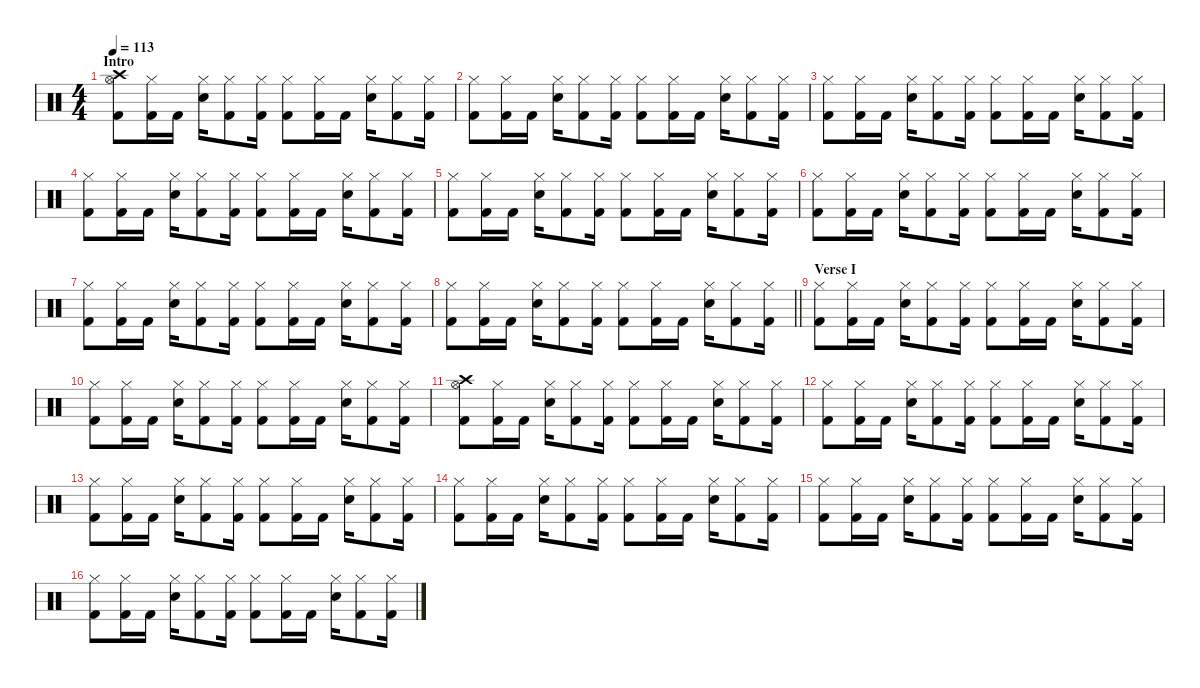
\defaultSystemsLayout 4
\hideDynamics
\bracketExtendMode nobrackets
\singleTrackTrackNamePolicy hidden
\multiTrackTrackNamePolicy hidden
\firstSystemTrackNameMode fullname
\firstSystemTrackNameOrientation horizontal
\otherSystemsTrackNameOrientation horizontal
\track ("Drums" "drm.") {instrument percussion}
\staff {score}
\articulation defaults
\ts (4 4)
\beaming (8 2 2 2 2)
\section ("" "Intro")
\tempo 113
\clef neutral
\ks c
("Crash high (hit)" "Hi-Hat (open)" "Kick (hit) 2").8{dy f beam Down} ("Hi-Hat (closed)" "Kick (hit) 2").16{beam Down} "Kick (hit) 2".16{beam Down} ("Hi-Hat (closed)" "Snare (hit) 2").16{beam Down} ("Hi-Hat (closed)" "Kick (hit) 2").8{beam Down} ("Hi-Hat (closed)" "Kick (hit) 2").16{beam Down} ("Hi-Hat (closed)" "Kick (hit) 2").8{beam Down} ("Hi-Hat (closed)" "Kick (hit) 2").16{beam Down} "Kick (hit) 2".16{beam Down} ("Hi-Hat (closed)" "Snare (hit) 2").16{beam Down} ("Hi-Hat (closed)" "Kick (hit) 2").8{beam Down} ("Hi-Hat (closed)" "Kick (hit) 2").16{beam Down} |
("Hi-Hat (closed)" "Kick (hit) 2").8{beam Down} ("Hi-Hat (closed)" "Kick (hit) 2").16{beam Down} "Kick (hit) 2".16{beam Down} ("Hi-Hat (closed)" "Snare (hit) 2").16{beam Down} ("Hi-Hat (closed)" "Kick (hit) 2").8{beam Down} ("Hi-Hat (closed)" "Kick (hit) 2").16{beam Down} ("Hi-Hat (closed)" "Kick (hit) 2").8{beam Down} ("Hi-Hat (closed)" "Kick (hit) 2").16{beam Down} "Kick (hit) 2".16{beam Down} ("Hi-Hat (closed)" "Snare (hit) 2").16{beam Down} ("Hi-Hat (closed)" "Kick (hit) 2").8{beam Down} ("Hi-Hat (closed)" "Kick (hit) 2").16{beam Down} |
("Hi-Hat (closed)" "Kick (hit) 2").8{beam Down} ("Hi-Hat (closed)" "Kick (hit) 2").16{beam Down} "Kick (hit) 2".16{beam Down} ("Hi-Hat (closed)" "Snare (hit) 2").16{beam Down} ("Hi-Hat (closed)" "Kick (hit) 2").8{beam Down} ("Hi-Hat (closed)" "Kick (hit) 2").16{beam Down} ("Hi-Hat (closed)" "Kick (hit) 2").8{beam Down} ("Hi-Hat (closed)" "Kick (hit) 2").16{beam Down} "Kick (hit) 2".16{beam Down} ("Hi-Hat (closed)" "Snare (hit) 2").16{beam Down} ("Hi-Hat (closed)" "Kick (hit) 2").8{beam Down} ("Hi-Hat (closed)" "Kick (hit) 2").16{beam Down} |
("Hi-Hat (closed)" "Kick (hit) 2").8{beam Down} ("Hi-Hat (closed)" "Kick (hit) 2").16{beam Down} "Kick (hit) 2".16{beam Down} ("Hi-Hat (closed)" "Snare (hit) 2").16{beam Down} ("Hi-Hat (closed)" "Kick (hit) 2").8{beam Down} ("Hi-Hat (closed)" "Kick (hit) 2").16{beam Down} ("Hi-Hat (closed)" "Kick (hit) 2").8{beam Down} ("Hi-Hat (closed)" "Kick (hit) 2").16{beam Down} "Kick (hit) 2".16{beam Down} ("Hi-Hat (closed)" "Snare (hit) 2").16{beam Down} ("Hi-Hat (closed)" "Kick (hit) 2").8{beam Down} ("Hi-Hat (closed)" "Kick (hit) 2").16{beam Down} |
("Hi-Hat (closed)" "Kick (hit) 2").8{beam Down} ("Hi-Hat (closed)" "Kick (hit) 2").16{beam Down} "Kick (hit) 2".16{beam Down} ("Hi-Hat (closed)" "Snare (hit) 2").16{beam Down} ("Hi-Hat (closed)" "Kick (hit) 2").8{beam Down} ("Hi-Hat (closed)" "Kick (hit) 2").16{beam Down} ("Hi-Hat (closed)" "Kick (hit) 2").8{beam Down} ("Hi-Hat (closed)" "Kick (hit) 2").16{beam Down} "Kick (hit) 2".16{beam Down} ("Hi-Hat (closed)" "Snare (hit) 2").16{beam Down} ("Hi-Hat (closed)" "Kick (hit) 2").8{beam Down} ("Hi-Hat (closed)" "Kick (hit) 2").16{beam Down} |
("Hi-Hat (closed)" "Kick (hit) 2").8{beam Down} ("Hi-Hat (closed)" "Kick (hit) 2").16{beam Down} "Kick (hit) 2".16{beam Down} ("Hi-Hat (closed)" "Snare (hit) 2").16{beam Down} ("Hi-Hat (closed)" "Kick (hit) 2").8{beam Down} ("Hi-Hat (closed)" "Kick (hit) 2").16{beam Down} ("Hi-Hat (closed)" "Kick (hit) 2").8{beam Down} ("Hi-Hat (closed)" "Kick (hit) 2").16{beam Down} "Kick (hit) 2".16{beam Down} ("Hi-Hat (closed)" "Snare (hit) 2").16{beam Down} ("Hi-Hat (closed)" "Kick (hit) 2").8{beam Down} ("Hi-Hat (closed)" "Kick (hit) 2").16{beam Down} |
("Hi-Hat (closed)" "Kick (hit) 2").8{beam Down} ("Hi-Hat (closed)" "Kick (hit) 2").16{beam Down} "Kick (hit) 2".16{beam Down} ("Hi-Hat (closed)" "Snare (hit) 2").16{beam Down} ("Hi-Hat (closed)" "Kick (hit) 2").8{beam Down} ("Hi-Hat (closed)" "Kick (hit) 2").16{beam Down} ("Hi-Hat (closed)" "Kick (hit) 2").8{beam Down} ("Hi-Hat (closed)" "Kick (hit) 2").16{beam Down} "Kick (hit) 2".16{beam Down} ("Hi-Hat (closed)" "Snare (hit) 2").16{beam Down} ("Hi-Hat (closed)" "Kick (hit) 2").8{beam Down} ("Hi-Hat (closed)" "Kick (hit) 2").16{beam Down} |
\barLineRight lightlight
("Hi-Hat (closed)" "Kick (hit) 2").8{beam Down} ("Hi-Hat (closed)" "Kick (hit) 2").16{beam Down} "Kick (hit) 2".16{beam Down} ("Hi-Hat (closed)" "Snare (hit) 2").16{beam Down} ("Hi-Hat (closed)" "Kick (hit) 2").8{beam Down} ("Hi-Hat (closed)" "Kick (hit) 2").16{beam Down} ("Hi-Hat (closed)" "Kick (hit) 2").8{beam Down} ("Hi-Hat (closed)" "Kick (hit) 2").16{beam Down} "Kick (hit) 2".16{beam Down} ("Hi-Hat (closed)" "Snare (hit) 2").16{beam Down} ("Hi-Hat (closed)" "Kick (hit) 2").8{beam Down} ("Hi-Hat (closed)" "Kick (hit) 2").16{beam Down} |
\section ("" "Verse I")
("Hi-Hat (closed)" "Kick (hit) 2").8{beam Down} ("Hi-Hat (closed)" "Kick (hit) 2").16{beam Down} "Kick (hit) 2".16{beam Down} ("Hi-Hat (closed)" "Snare (hit) 2").16{beam Down} ("Hi-Hat (closed)" "Kick (hit) 2").8{beam Down} ("Hi-Hat (closed)" "Kick (hit) 2").16{beam Down} ("Hi-Hat (closed)" "Kick (hit) 2").8{beam Down} ("Hi-Hat (closed)" "Kick (hit) 2").16{beam Down} "Kick (hit) 2".16{beam Down} ("Hi-Hat (closed)" "Snare (hit) 2").16{beam Down} ("Hi-Hat (closed)" "Kick (hit) 2").8{beam Down} ("Hi-Hat (closed)" "Kick (hit) 2").16{beam Down} |
("Hi-Hat (closed)" "Kick (hit) 2").8{beam Down} ("Hi-Hat (closed)" "Kick (hit) 2").16{beam Down} "Kick (hit) 2".16{beam Down} ("Hi-Hat (closed)" "Snare (hit) 2").16{beam Down} ("Hi-Hat (closed)" "Kick (hit) 2").8{beam Down} ("Hi-Hat (closed)" "Kick (hit) 2").16{beam Down} ("Hi-Hat (closed)" "Kick (hit) 2").8{beam Down} ("Hi-Hat (closed)" "Kick (hit) 2").16{beam Down} "Kick (hit) 2".16{beam Down} ("Hi-Hat (closed)" "Snare (hit) 2").16{beam Down} ("Hi-Hat (closed)" "Kick (hit) 2").8{beam Down} ("Hi-Hat (closed)" "Kick (hit) 2").16{beam Down} |
("Crash high (hit)" "Hi-Hat (open)" "Kick (hit) 2").8{beam Down} ("Hi-Hat (closed)" "Kick (hit) 2").16{beam Down} "Kick (hit) 2".16{beam Down} ("Hi-Hat (closed)" "Snare (hit) 2").16{beam Down} ("Hi-Hat (closed)" "Kick (hit) 2").8{beam Down} ("Hi-Hat (closed)" "Kick (hit) 2").16{beam Down} ("Hi-Hat (closed)" "Kick (hit) 2").8{beam Down} ("Hi-Hat (closed)" "Kick (hit) 2").16{beam Down} "Kick (hit) 2".16{beam Down} ("Hi-Hat (closed)" "Snare (hit) 2").16{beam Down} ("Hi-Hat (closed)" "Kick (hit) 2").8{beam Down} ("Hi-Hat (closed)" "Kick (hit) 2").16{beam Down} |
("Hi-Hat (closed)" "Kick (hit) 2").8{beam Down} ("Hi-Hat (closed)" "Kick (hit) 2").16{beam Down} "Kick (hit) 2".16{beam Down} ("Hi-Hat (closed)" "Snare (hit) 2").16{beam Down} ("Hi-Hat (closed)" "Kick (hit) 2").8{beam Down} ("Hi-Hat (closed)" "Kick (hit) 2").16{beam Down} ("Hi-Hat (closed)" "Kick (hit) 2").8{beam Down} ("Hi-Hat (closed)" "Kick (hit) 2").16{beam Down} "Kick (hit) 2".16{beam Down} ("Hi-Hat (closed)" "Snare (hit) 2").16{beam Down} ("Hi-Hat (closed)" "Kick (hit) 2").8{beam Down} ("Hi-Hat (closed)" "Kick (hit) 2").16{beam Down} |
("Hi-Hat (closed)" "Kick (hit) 2").8{beam Down} ("Hi-Hat (closed)" "Kick (hit) 2").16{beam Down} "Kick (hit) 2".16{beam Down} ("Hi-Hat (closed)" "Snare (hit) 2").16{beam Down} ("Hi-Hat (closed)" "Kick (hit) 2").8{beam Down} ("Hi-Hat (closed)" "Kick (hit) 2").16{beam Down} ("Hi-Hat (closed)" "Kick (hit) 2").8{beam Down} ("Hi-Hat (closed)" "Kick (hit) 2").16{beam Down} "Kick (hit) 2".16{beam Down} ("Hi-Hat (closed)" "Snare (hit) 2").16{beam Down} ("Hi-Hat (closed)" "Kick (hit) 2").8{beam Down} ("Hi-Hat (closed)" "Kick (hit) 2").16{beam Down} |
("Hi-Hat (closed)" "Kick (hit) 2").8{beam Down} ("Hi-Hat (closed)" "Kick (hit) 2").16{beam Down} "Kick (hit) 2".16{beam Down} ("Hi-Hat (closed)" "Snare (hit) 2").16{beam Down} ("Hi-Hat (closed)" "Kick (hit) 2").8{beam Down} ("Hi-Hat (closed)" "Kick (hit) 2").16{beam Down} ("Hi-Hat (closed)" "Kick (hit) 2").8{beam Down} ("Hi-Hat (closed)" "Kick (hit) 2").16{beam Down} "Kick (hit) 2".16{beam Down} ("Hi-Hat (closed)" "Snare (hit) 2").16{beam Down} ("Hi-Hat (closed)" "Kick (hit) 2").8{beam Down} ("Hi-Hat (closed)" "Kick (hit) 2").16{beam Down} |
("Hi-Hat (closed)" "Kick (hit) 2").8{beam Down} ("Hi-Hat (closed)" "Kick (hit) 2").16{beam Down} "Kick (hit) 2".16{beam Down} ("Hi-Hat (closed)" "Snare (hit) 2").16{beam Down} ("Hi-Hat (closed)" "Kick (hit) 2").8{beam Down} ("Hi-Hat (closed)" "Kick (hit) 2").16{beam Down} ("Hi-Hat (closed)" "Kick (hit) 2").8{beam Down} ("Hi-Hat (closed)" "Kick (hit) 2").16{beam Down} "Kick (hit) 2".16{beam Down} ("Hi-Hat (closed)" "Snare (hit) 2").16{beam Down} ("Hi-Hat (closed)" "Kick (hit) 2").8{beam Down} ("Hi-Hat (closed)" "Kick (hit) 2").16{beam Down} |
("Hi-Hat (closed)" "Kick (hit) 2").8{beam Down} ("Hi-Hat (closed)" "Kick (hit) 2").16{beam Down} "Kick (hit) 2".16{beam Down} ("Hi-Hat (closed)" "Snare (hit) 2").16{beam Down} ("Hi-Hat (closed)" "Kick (hit) 2").8{beam Down} ("Hi-Hat (closed)" "Kick (hit) 2").16{beam Down} ("Hi-Hat (closed)" "Kick (hit) 2").8{beam Down} ("Hi-Hat (closed)" "Kick (hit) 2").16{beam Down} "Kick (hit) 2".16{beam Down} ("Hi-Hat (closed)" "Snare (hit) 2").16{beam Down} ("Hi-Hat (closed)" "Kick (hit) 2").8{beam Down} ("Hi-Hat (closed)" "Kick (hit) 2").16{beam Down}
